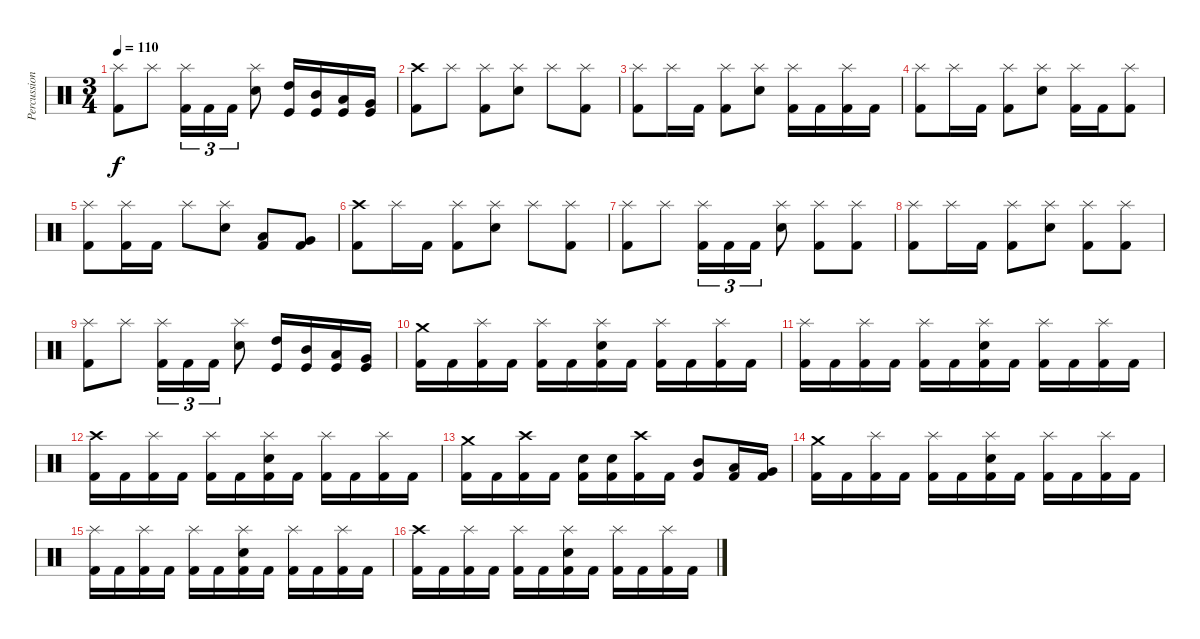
\track ("Percussion" "Percussion") {instrument percussion}
\staff {score}
\articulation defaults
\ts (3 4)
\tempo 110
\clef neutral
\ks c
("Splash (hit)" "Kick (hit) 2").8{dy f} "Splash (hit)".8 ("Splash (hit)" "Kick (hit) 2").16{tu (3 2)} "Kick (hit) 2".16{tu (3 2)} "Kick (hit) 2".16{tu (3 2)} ("Splash (hit)" "Electric Snare (hit)").8 ("High Tom (hit)" "Kick (hit)").16 ("Mid Tom (hit)" "Kick (hit)").16 ("Low Tom (hit)" "Kick (hit)").16 ("Very Low Tom (hit)" "Kick (hit)").16 |
("Crash high (hit)" "Kick (hit) 2").8 "Splash (hit)".8 ("Splash (hit)" "Kick (hit) 2").8 ("Splash (hit)" "Electric Snare (hit)").8 "Splash (hit)".8 ("Splash (hit)" "Kick (hit) 2").8 |
("Splash (hit)" "Kick (hit) 2").8 "Splash (hit)".16 "Kick (hit) 2".16 ("Splash (hit)" "Kick (hit) 2").8 ("Splash (hit)" "Electric Snare (hit)").8 ("Splash (hit)" "Kick (hit) 2").16 "Kick (hit) 2".16 ("Splash (hit)" "Kick (hit) 2").16 "Kick (hit) 2".16 |
("Splash (hit)" "Kick (hit) 2").8 "Splash (hit)".16 "Kick (hit) 2".16 ("Splash (hit)" "Kick (hit) 2").8 ("Splash (hit)" "Electric Snare (hit)").8 ("Splash (hit)" "Kick (hit) 2").16 "Kick (hit) 2".16 ("Splash (hit)" "Kick (hit) 2").8 |
("Splash (hit)" "Kick (hit) 2").8 ("Splash (hit)" "Kick (hit) 2").16 "Kick (hit) 2".16 "Splash (hit)".8 ("Splash (hit)" "Electric Snare (hit)").8 ("Low Tom (hit)" "Kick (hit) 2").8 ("Very Low Tom (hit)" "Kick (hit) 2").8 |
("Crash high (hit)" "Kick (hit) 2").8 "Splash (hit)".16 "Kick (hit) 2".16 ("Splash (hit)" "Kick (hit) 2").8 ("Splash (hit)" "Electric Snare (hit)").8 "Splash (hit)".8 ("Splash (hit)" "Kick (hit) 2").8 |
("Splash (hit)" "Kick (hit) 2").8 "Splash (hit)".8 ("Splash (hit)" "Kick (hit) 2").16{tu (3 2)} "Kick (hit) 2".16{tu (3 2)} "Kick (hit) 2".16{tu (3 2)} ("Splash (hit)" "Electric Snare (hit)").8 ("Splash (hit)" "Kick (hit) 2").8 ("Splash (hit)" "Kick (hit) 2").8 |
("Splash (hit)" "Kick (hit) 2").8 "Splash (hit)".16 "Kick (hit) 2".16 ("Splash (hit)" "Kick (hit) 2").8 ("Splash (hit)" "Electric Snare (hit)").8 ("Splash (hit)" "Kick (hit) 2").8 ("Splash (hit)" "Kick (hit) 2").8 |
("Splash (hit)" "Kick (hit) 2").8 "Splash (hit)".8 ("Splash (hit)" "Kick (hit) 2").16{tu (3 2)} "Kick (hit) 2".16{tu (3 2)} "Kick (hit) 2".16{tu (3 2)} ("Splash (hit)" "Electric Snare (hit)").8 ("High Tom (hit)" "Kick (hit)").16 ("Mid Tom (hit)" "Kick (hit)").16 ("Low Tom (hit)" "Kick (hit)").16 ("Very Low Tom (hit)" "Kick (hit)").16 |
("Crash medium (hit)" "Kick (hit) 2").16 "Kick (hit) 2".16 ("Splash (hit)" "Kick (hit) 2").16 "Kick (hit) 2".16 ("Splash (hit)" "Kick (hit) 2").16 "Kick (hit) 2".16 ("Splash (hit)" "Electric Snare (hit)" "Kick (hit) 2").16 "Kick (hit) 2".16 ("Splash (hit)" "Kick (hit) 2").16 "Kick (hit) 2".16 ("Splash (hit)" "Kick (hit) 2").16 "Kick (hit) 2".16 |
("Splash (hit)" "Kick (hit) 2").16 "Kick (hit) 2".16 ("Splash (hit)" "Kick (hit) 2").16 "Kick (hit) 2".16 ("Splash (hit)" "Kick (hit) 2").16 "Kick (hit) 2".16 ("Splash (hit)" "Electric Snare (hit)" "Kick (hit) 2").16 "Kick (hit) 2".16 ("Splash (hit)" "Kick (hit) 2").16 "Kick (hit) 2".16 ("Splash (hit)" "Kick (hit) 2").16 "Kick (hit) 2".16 |
("Crash high (hit)" "Kick (hit) 2").16 "Kick (hit) 2".16 ("Splash (hit)" "Kick (hit) 2").16 "Kick (hit) 2".16 ("Splash (hit)" "Kick (hit) 2").16 "Kick (hit) 2".16 ("Splash (hit)" "Electric Snare (hit)" "Kick (hit) 2").16 "Kick (hit) 2".16 ("Splash (hit)" "Kick (hit) 2").16 "Kick (hit) 2".16 ("Splash (hit)" "Kick (hit) 2").16 "Kick (hit) 2".16 |
("Crash medium (hit)" "Kick (hit) 2").16 "Kick (hit) 2".16 ("Crash high (hit)" "Kick (hit) 2").16 "Kick (hit) 2".16 ("Electric Snare (hit)" "Kick (hit) 2").16 ("Electric Snare (hit)" "Kick (hit) 2").16 ("Crash high (hit)" "Kick (hit) 2").16 "Kick (hit) 2".16 ("Mid Tom (hit)" "Kick (hit) 2").8 ("Low Tom (hit)" "Kick (hit) 2").16 ("Very Low Tom (hit)" "Kick (hit) 2").16 |
("Crash medium (hit)" "Kick (hit) 2").16 "Kick (hit) 2".16 ("Splash (hit)" "Kick (hit) 2").16 "Kick (hit) 2".16 ("Splash (hit)" "Kick (hit) 2").16 "Kick (hit) 2".16 ("Splash (hit)" "Electric Snare (hit)" "Kick (hit) 2").16 "Kick (hit) 2".16 ("Splash (hit)" "Kick (hit) 2").16 "Kick (hit) 2".16 ("Splash (hit)" "Kick (hit) 2").16 "Kick (hit) 2".16 |
("Splash (hit)" "Kick (hit) 2").16 "Kick (hit) 2".16 ("Splash (hit)" "Kick (hit) 2").16 "Kick (hit) 2".16 ("Splash (hit)" "Kick (hit) 2").16 "Kick (hit) 2".16 ("Splash (hit)" "Electric Snare (hit)" "Kick (hit) 2").16 "Kick (hit) 2".16 ("Splash (hit)" "Kick (hit) 2").16 "Kick (hit) 2".16 ("Splash (hit)" "Kick (hit) 2").16 "Kick (hit) 2".16 |
("Crash high (hit)" "Kick (hit) 2").16 "Kick (hit) 2".16 ("Splash (hit)" "Kick (hit) 2").16 "Kick (hit) 2".16 ("Splash (hit)" "Kick (hit) 2").16 "Kick (hit) 2".16 ("Splash (hit)" "Electric Snare (hit)" "Kick (hit) 2").16 "Kick (hit) 2".16 ("Splash (hit)" "Kick (hit) 2").16 "Kick (hit) 2".16 ("Splash (hit)" "Kick (hit) 2").16 "Kick (hit) 2".16
